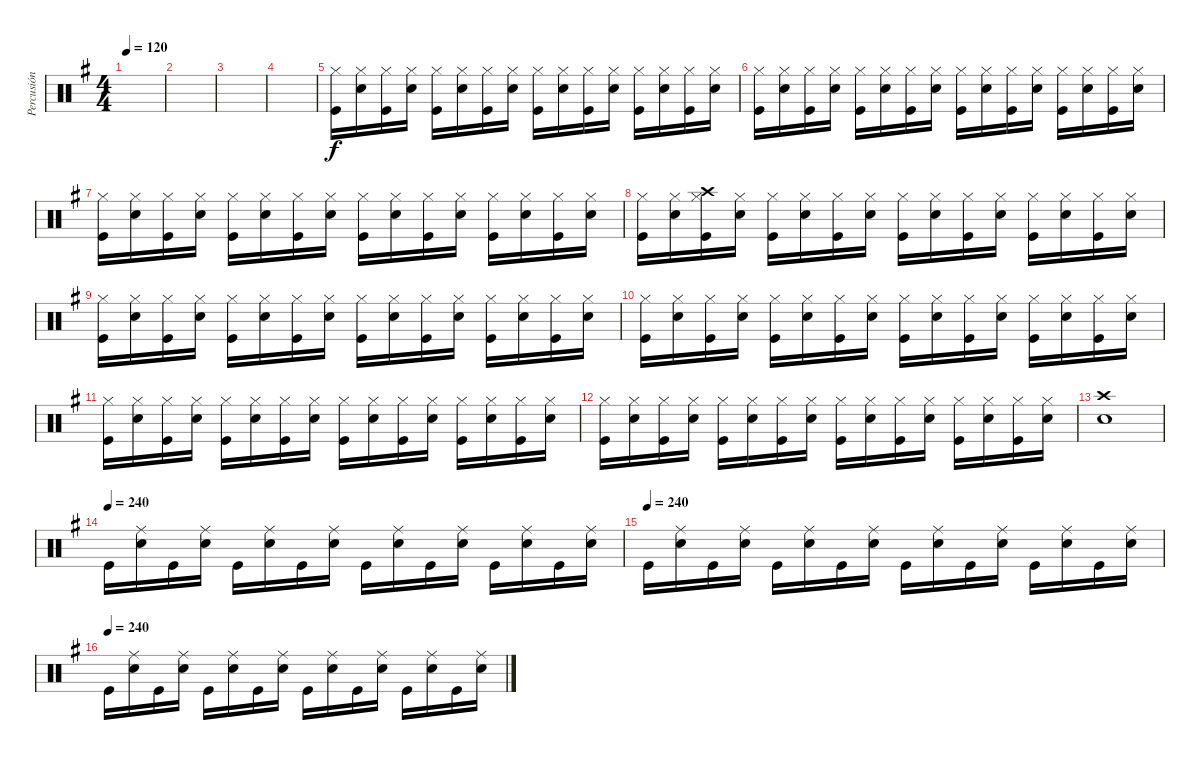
\track ("Percusión" "Percusión") {instrument percussion}
\staff {score}
\articulation defaults
\ts (4 4)
\tempo 120
\clef neutral
\ks g
|
|
|
|
("Hi-Hat (closed)" "Kick (hit)").16 ("Hi-Hat (closed)" "Snare (hit) 2").16 ("Hi-Hat (closed)" "Kick (hit)").16 ("Hi-Hat (closed)" "Snare (hit) 2").16 ("Hi-Hat (closed)" "Kick (hit)").16 ("Hi-Hat (closed)" "Snare (hit) 2").16 ("Hi-Hat (closed)" "Kick (hit)").16 ("Hi-Hat (closed)" "Snare (hit) 2").16 ("Hi-Hat (closed)" "Kick (hit)").16 ("Hi-Hat (closed)" "Snare (hit) 2").16 ("Hi-Hat (closed)" "Kick (hit)").16 ("Hi-Hat (closed)" "Snare (hit) 2").16 ("Hi-Hat (closed)" "Kick (hit)").16 ("Hi-Hat (closed)" "Snare (hit) 2").16 ("Hi-Hat (closed)" "Kick (hit)").16 ("Hi-Hat (closed)" "Snare (hit) 2").16 |
("Hi-Hat (closed)" "Kick (hit)").16 ("Hi-Hat (closed)" "Snare (hit) 2").16 ("Hi-Hat (closed)" "Kick (hit)").16 ("Hi-Hat (closed)" "Snare (hit) 2").16 ("Hi-Hat (closed)" "Kick (hit)").16 ("Hi-Hat (closed)" "Snare (hit) 2").16 ("Hi-Hat (closed)" "Kick (hit)").16 ("Hi-Hat (closed)" "Snare (hit) 2").16 ("Hi-Hat (closed)" "Kick (hit)").16 ("Hi-Hat (closed)" "Snare (hit) 2").16 ("Hi-Hat (closed)" "Kick (hit)").16 ("Hi-Hat (closed)" "Snare (hit) 2").16 ("Hi-Hat (closed)" "Kick (hit)").16 ("Hi-Hat (closed)" "Snare (hit) 2").16 ("Hi-Hat (closed)" "Kick (hit)").16 ("Hi-Hat (closed)" "Snare (hit) 2").16 |
("Hi-Hat (closed)" "Kick (hit)").16 ("Hi-Hat (closed)" "Snare (hit) 2").16 ("Hi-Hat (closed)" "Kick (hit)").16 ("Hi-Hat (closed)" "Snare (hit) 2").16 ("Hi-Hat (closed)" "Kick (hit)").16 ("Hi-Hat (closed)" "Snare (hit) 2").16 ("Hi-Hat (closed)" "Kick (hit)").16 ("Hi-Hat (closed)" "Snare (hit) 2").16 ("Hi-Hat (closed)" "Kick (hit)").16 ("Hi-Hat (closed)" "Snare (hit) 2").16 ("Hi-Hat (closed)" "Kick (hit)").16 ("Hi-Hat (closed)" "Snare (hit) 2").16 ("Hi-Hat (closed)" "Kick (hit)").16 ("Hi-Hat (closed)" "Snare (hit) 2").16 ("Hi-Hat (closed)" "Kick (hit)").16 ("Hi-Hat (closed)" "Snare (hit) 2").16 |
("Hi-Hat (closed)" "Kick (hit)").16 ("Hi-Hat (closed)" "Snare (hit) 2").16 ("Hi-Hat (closed)" "Kick (hit)" "Crash high (hit)").16 ("Hi-Hat (closed)" "Snare (hit) 2").16 ("Hi-Hat (closed)" "Kick (hit)").16 ("Hi-Hat (closed)" "Snare (hit) 2").16 ("Hi-Hat (closed)" "Kick (hit)").16 ("Hi-Hat (closed)" "Snare (hit) 2").16 ("Hi-Hat (closed)" "Kick (hit)").16 ("Hi-Hat (closed)" "Snare (hit) 2").16 ("Hi-Hat (closed)" "Kick (hit)").16 ("Hi-Hat (closed)" "Snare (hit) 2").16 ("Hi-Hat (closed)" "Kick (hit)").16 ("Hi-Hat (closed)" "Snare (hit) 2").16 ("Hi-Hat (closed)" "Kick (hit)").16 ("Hi-Hat (closed)" "Snare (hit) 2").16 |
("Hi-Hat (closed)" "Kick (hit)").16 ("Hi-Hat (closed)" "Snare (hit) 2").16 ("Hi-Hat (closed)" "Kick (hit)").16 ("Hi-Hat (closed)" "Snare (hit) 2").16 ("Hi-Hat (closed)" "Kick (hit)").16 ("Hi-Hat (closed)" "Snare (hit) 2").16 ("Hi-Hat (closed)" "Kick (hit)").16 ("Hi-Hat (closed)" "Snare (hit) 2").16 ("Hi-Hat (closed)" "Kick (hit)").16 ("Hi-Hat (closed)" "Snare (hit) 2").16 ("Hi-Hat (closed)" "Kick (hit)").16 ("Hi-Hat (closed)" "Snare (hit) 2").16 ("Hi-Hat (closed)" "Kick (hit)").16 ("Hi-Hat (closed)" "Snare (hit) 2").16 ("Hi-Hat (closed)" "Kick (hit)").16 ("Hi-Hat (closed)" "Snare (hit) 2").16 |
("Hi-Hat (closed)" "Kick (hit)").16 ("Hi-Hat (closed)" "Snare (hit) 2").16 ("Hi-Hat (closed)" "Kick (hit)").16 ("Hi-Hat (closed)" "Snare (hit) 2").16 ("Hi-Hat (closed)" "Kick (hit)").16 ("Hi-Hat (closed)" "Snare (hit) 2").16 ("Hi-Hat (closed)" "Kick (hit)").16 ("Hi-Hat (closed)" "Snare (hit) 2").16 ("Hi-Hat (closed)" "Kick (hit)").16 ("Hi-Hat (closed)" "Snare (hit) 2").16 ("Hi-Hat (closed)" "Kick (hit)").16 ("Hi-Hat (closed)" "Snare (hit) 2").16 ("Hi-Hat (closed)" "Kick (hit)").16 ("Hi-Hat (closed)" "Snare (hit) 2").16 ("Hi-Hat (closed)" "Kick (hit)").16 ("Hi-Hat (closed)" "Snare (hit) 2").16 |
("Hi-Hat (closed)" "Kick (hit)").16 ("Hi-Hat (closed)" "Snare (hit) 2").16 ("Hi-Hat (closed)" "Kick (hit)").16 ("Hi-Hat (closed)" "Snare (hit) 2").16 ("Hi-Hat (closed)" "Kick (hit)").16 ("Hi-Hat (closed)" "Snare (hit) 2").16 ("Hi-Hat (closed)" "Kick (hit)").16 ("Hi-Hat (closed)" "Snare (hit) 2").16 ("Hi-Hat (closed)" "Kick (hit)").16 ("Hi-Hat (closed)" "Snare (hit) 2").16 ("Hi-Hat (closed)" "Kick (hit)").16 ("Hi-Hat (closed)" "Snare (hit) 2").16 ("Hi-Hat (closed)" "Kick (hit)").16 ("Hi-Hat (closed)" "Snare (hit) 2").16 ("Hi-Hat (closed)" "Kick (hit)").16 ("Hi-Hat (closed)" "Snare (hit) 2").16 |
("Hi-Hat (closed)" "Kick (hit)").16 ("Hi-Hat (closed)" "Snare (hit) 2").16 ("Hi-Hat (closed)" "Kick (hit)").16 ("Hi-Hat (closed)" "Snare (hit) 2").16 ("Hi-Hat (closed)" "Kick (hit)").16 ("Hi-Hat (closed)" "Snare (hit) 2").16 ("Hi-Hat (closed)" "Kick (hit)").16 ("Hi-Hat (closed)" "Snare (hit) 2").16 ("Hi-Hat (closed)" "Kick (hit)").16 ("Hi-Hat (closed)" "Snare (hit) 2").16 ("Hi-Hat (closed)" "Kick (hit)").16 ("Hi-Hat (closed)" "Snare (hit) 2").16 ("Hi-Hat (closed)" "Kick (hit)").16 ("Hi-Hat (closed)" "Snare (hit) 2").16 ("Hi-Hat (closed)" "Kick (hit)").16 ("Hi-Hat (closed)" "Snare (hit) 2").16 |
("Crash high (hit)" "Snare (hit) 2").1 |
\tempo (240)
"Kick (hit)".16 ("Ride (middle)" "Snare (hit) 2").16 "Kick (hit)".16 ("Ride (middle)" "Snare (hit) 2").16 "Kick (hit)".16 ("Ride (middle)" "Snare (hit) 2").16 "Kick (hit)".16 ("Ride (middle)" "Snare (hit) 2").16 "Kick (hit)".16 ("Ride (middle)" "Snare (hit) 2").16 "Kick (hit)".16 ("Ride (middle)" "Snare (hit) 2").16 "Kick (hit)".16 ("Ride (middle)" "Snare (hit) 2").16 "Kick (hit)".16 ("Ride (middle)" "Snare (hit) 2").16 |
\tempo (240)
"Kick (hit)".16 ("Ride (middle)" "Snare (hit) 2").16 "Kick (hit)".16 ("Ride (middle)" "Snare (hit) 2").16 "Kick (hit)".16 ("Ride (middle)" "Snare (hit) 2").16 "Kick (hit)".16 ("Ride (middle)" "Snare (hit) 2").16 "Kick (hit)".16 ("Ride (middle)" "Snare (hit) 2").16 "Kick (hit)".16 ("Ride (middle)" "Snare (hit) 2").16 "Kick (hit)".16 ("Ride (middle)" "Snare (hit) 2").16 "Kick (hit)".16 ("Ride (middle)" "Snare (hit) 2").16 |
\tempo (240)
"Kick (hit)".16 ("Ride (middle)" "Snare (hit) 2").16 "Kick (hit)".16 ("Ride (middle)" "Snare (hit) 2").16 "Kick (hit)".16 ("Ride (middle)" "Snare (hit) 2").16 "Kick (hit)".16 ("Ride (middle)" "Snare (hit) 2").16 "Kick (hit)".16 ("Ride (middle)" "Snare (hit) 2").16 "Kick (hit)".16 ("Ride (middle)" "Snare (hit) 2").16 "Kick (hit)".16 ("Ride (middle)" "Snare (hit) 2").16 "Kick (hit)".16 ("Ride (middle)" "Snare (hit) 2").16
